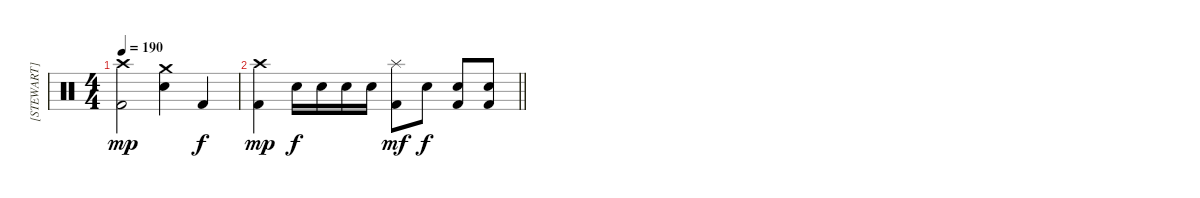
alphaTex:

\track ("[STEWART]" "[STEWART]") {instrument percussion}
\staff {score}
\articulation defaults
\ts (4 4)
\tempo 190
\clef neutral
\ks c
("Crash high (hit)" "Kick (hit) 2").2{dy mp} ("Crash medium (hit)" "Electric Snare (hit)").4 "Kick (hit) 2".4{dy f} |
\barLineRight lightlight
("Crash high (hit)" "Kick (hit) 2").4{dy mp} "Electric Snare (hit)".16{dy f} "Electric Snare (hit)".16 "Electric Snare (hit)".16 "Electric Snare (hit)".16 ("Splash (hit)" "Kick (hit) 2").8{dy mf} "Electric Snare (hit)".8{dy f} ("Electric Snare (hit)" "Kick (hit) 2").8 ("Electric Snare (hit)" "Kick (hit) 2").8
